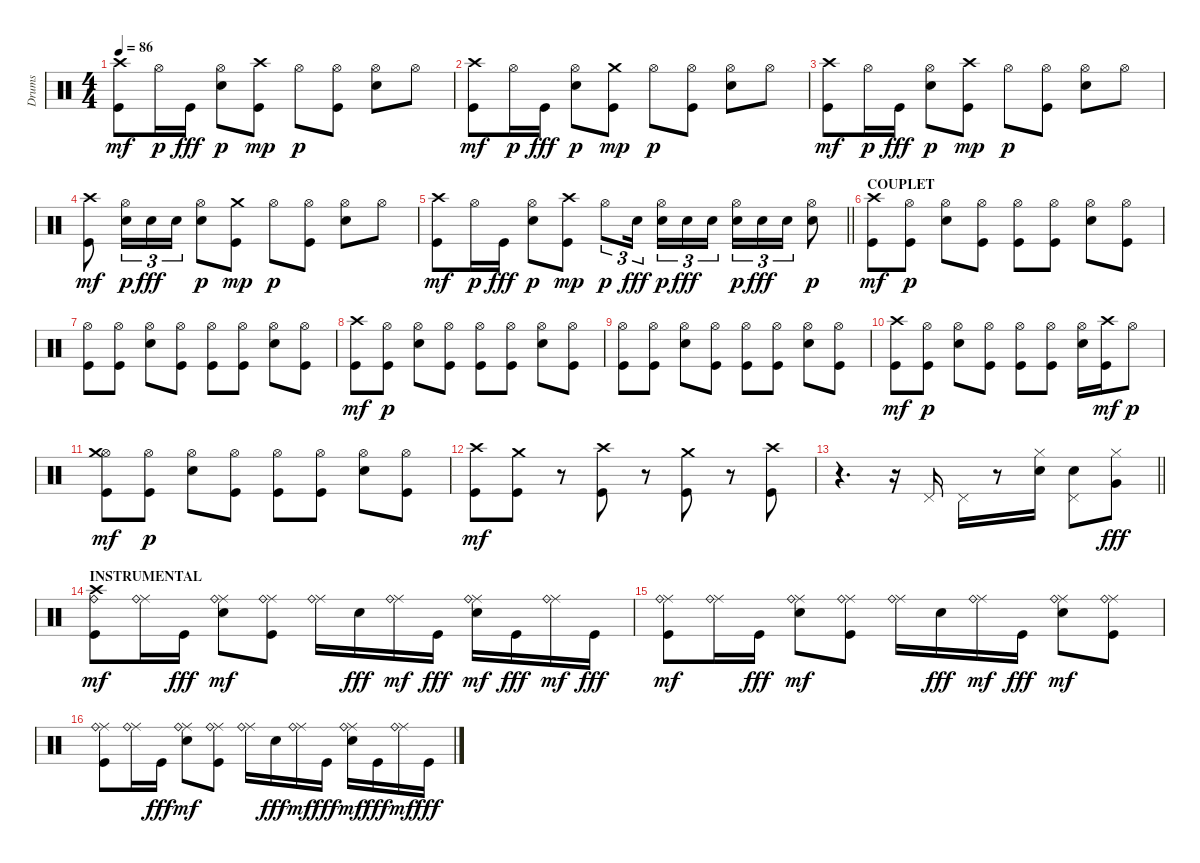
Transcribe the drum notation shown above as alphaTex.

\track ("Drums" "Drums") {instrument percussion}
\staff {score}
\articulation defaults
\ts (4 4)
\tempo 86
\clef neutral
\ks c
("Kick (hit)" "Crash high (hit)").8{dy mf} "Hi-Hat (open)".16{dy p} "Kick (hit)".16{dy fff} ("Electric Snare (hit)" "Hi-Hat (open)").8{dy p} ("Kick (hit)" "Crash high (hit)").8{dy mp} "Hi-Hat (open)".8{dy p} ("Kick (hit)" "Hi-Hat (open)").8 ("Electric Snare (hit)" "Hi-Hat (open)").8 "Hi-Hat (open)".8 |
("Kick (hit)" "Crash high (hit)").8{dy mf} "Hi-Hat (open)".16{dy p} "Kick (hit)".16{dy fff} ("Electric Snare (hit)" "Hi-Hat (open)").8{dy p} ("Kick (hit)" "Crash medium (hit)").8{dy mp} "Hi-Hat (open)".8{dy p} ("Kick (hit)" "Hi-Hat (open)").8 ("Electric Snare (hit)" "Hi-Hat (open)").8 "Hi-Hat (open)".8 |
("Kick (hit)" "Crash high (hit)").8{dy mf} "Hi-Hat (open)".16{dy p} "Kick (hit)".16{dy fff} ("Electric Snare (hit)" "Hi-Hat (open)").8{dy p} ("Kick (hit)" "Crash high (hit)").8{dy mp} "Hi-Hat (open)".8{dy p} ("Kick (hit)" "Hi-Hat (open)").8 ("Electric Snare (hit)" "Hi-Hat (open)").8 "Hi-Hat (open)".8 |
("Kick (hit)" "Crash high (hit)").8{dy mf} ("Electric Snare (hit)" "Hi-Hat (open)").16{tu (3 2) dy p} "Electric Snare (hit)".16{tu (3 2) dy fff} "Electric Snare (hit)".16{tu (3 2)} ("Electric Snare (hit)" "Hi-Hat (open)").8{dy p} ("Kick (hit)" "Crash medium (hit)").8{dy mp} "Hi-Hat (open)".8{dy p} ("Kick (hit)" "Hi-Hat (open)").8 ("Electric Snare (hit)" "Hi-Hat (open)").8 "Hi-Hat (open)".8 |
\barLineRight lightlight
("Kick (hit)" "Crash high (hit)").8{dy mf} "Hi-Hat (open)".16{dy p} "Kick (hit)".16{dy fff} ("Electric Snare (hit)" "Hi-Hat (open)").8{dy p} ("Kick (hit)" "Crash high (hit)").8{dy mp} "Hi-Hat (open)".8{tu (3 2) dy p} "Electric Snare (hit)".16{tu (3 2) dy fff beam splitsecondary} ("Electric Snare (hit)" "Hi-Hat (open)").16{tu (3 2) dy p} "Electric Snare (hit)".16{tu (3 2) dy fff} "Electric Snare (hit)".16{tu (3 2)} ("Electric Snare (hit)" "Hi-Hat (open)").16{tu (3 2) dy p} "Electric Snare (hit)".16{tu (3 2) dy fff} "Electric Snare (hit)".16{tu (3 2)} ("Electric Snare (hit)" "Hi-Hat (open)").8{dy p} |
\section ("" "COUPLET")
("Kick (hit)" "Crash high (hit)").8{dy mf} ("Kick (hit)" "Hi-Hat (open)").8{dy p} ("Electric Snare (hit)" "Hi-Hat (open)").8 ("Kick (hit)" "Hi-Hat (open)").8 ("Kick (hit)" "Hi-Hat (open)").8 ("Kick (hit)" "Hi-Hat (open)").8 ("Electric Snare (hit)" "Hi-Hat (open)").8 ("Kick (hit)" "Hi-Hat (open)").8 |
("Kick (hit)" "Hi-Hat (open)").8 ("Kick (hit)" "Hi-Hat (open)").8 ("Electric Snare (hit)" "Hi-Hat (open)").8 ("Kick (hit)" "Hi-Hat (open)").8 ("Kick (hit)" "Hi-Hat (open)").8 ("Kick (hit)" "Hi-Hat (open)").8 ("Electric Snare (hit)" "Hi-Hat (open)").8 ("Kick (hit)" "Hi-Hat (open)").8 |
("Kick (hit)" "Crash high (hit)").8{dy mf} ("Kick (hit)" "Hi-Hat (open)").8{dy p} ("Electric Snare (hit)" "Hi-Hat (open)").8 ("Kick (hit)" "Hi-Hat (open)").8 ("Kick (hit)" "Hi-Hat (open)").8 ("Kick (hit)" "Hi-Hat (open)").8 ("Electric Snare (hit)" "Hi-Hat (open)").8 ("Kick (hit)" "Hi-Hat (open)").8 |
("Kick (hit)" "Hi-Hat (open)").8 ("Kick (hit)" "Hi-Hat (open)").8 ("Electric Snare (hit)" "Hi-Hat (open)").8 ("Kick (hit)" "Hi-Hat (open)").8 ("Kick (hit)" "Hi-Hat (open)").8 ("Kick (hit)" "Hi-Hat (open)").8 ("Electric Snare (hit)" "Hi-Hat (open)").8 ("Kick (hit)" "Hi-Hat (open)").8 |
("Kick (hit)" "Crash high (hit)").8{dy mf} ("Kick (hit)" "Hi-Hat (open)").8{dy p} ("Electric Snare (hit)" "Hi-Hat (open)").8 ("Kick (hit)" "Hi-Hat (open)").8 ("Kick (hit)" "Hi-Hat (open)").8 ("Kick (hit)" "Hi-Hat (open)").8 ("Electric Snare (hit)" "Hi-Hat (open)").16 ("Kick (hit)" "Crash high (hit)").16{dy mf} "Hi-Hat (open)".8{dy p} |
("Kick (hit)" "Hi-Hat (open)" "Crash medium (hit)").8{dy mf} ("Kick (hit)" "Hi-Hat (open)").8{dy p} ("Electric Snare (hit)" "Hi-Hat (open)").8 ("Kick (hit)" "Hi-Hat (open)").8 ("Kick (hit)" "Hi-Hat (open)").8 ("Kick (hit)" "Hi-Hat (open)").8 ("Electric Snare (hit)" "Hi-Hat (open)").8 ("Kick (hit)" "Hi-Hat (open)").8 |
("Kick (hit)" "Crash high (hit)").8{dy mf} ("Kick (hit)" "Crash medium (hit)").8 r.8 ("Kick (hit)" "Crash high (hit)").8 r.8 ("Kick (hit)" "Crash medium (hit)").8 r.8 ("Kick (hit)" "Crash high (hit)").8 |
\barLineRight lightlight
r.4{d} r.16 "Pedal Hi-Hat (hit)".16 "Pedal Hi-Hat (hit)".16 r.8 ("Electric Snare (hit)" "Hi-Hat (closed)").16 ("Electric Snare (hit)" "Pedal Hi-Hat (hit)").8 ("Hi-Hat (closed)" "Very Low Tom (hit)").8{dy fff} |
\section ("" "INSTRUMENTAL")
("Kick (hit)" "Crash high (hit)" "Ride (bell)").8{dy mf} ("Ride (middle)" "Ride (bell)").16 "Kick (hit)".16{dy fff} ("Electric Snare (hit)" "Ride (middle)" "Ride (bell)").8{dy mf} ("Kick (hit)" "Ride (middle)" "Ride (bell)").8 ("Ride (middle)" "Ride (bell)").16 "Electric Snare (hit)".16{dy fff} ("Ride (middle)" "Ride (bell)").16{dy mf} "Kick (hit)".16{dy fff} ("Electric Snare (hit)" "Ride (middle)" "Ride (bell)").16{dy mf} "Kick (hit)".16{dy fff} ("Ride (middle)" "Ride (bell)").16{dy mf} "Kick (hit)".16{dy fff} |
("Kick (hit)" "Ride (middle)" "Ride (bell)").8{dy mf} ("Ride (middle)" "Ride (bell)").16 "Kick (hit)".16{dy fff} ("Electric Snare (hit)" "Ride (middle)" "Ride (bell)").8{dy mf} ("Kick (hit)" "Ride (middle)" "Ride (bell)").8 ("Ride (middle)" "Ride (bell)").16 "Electric Snare (hit)".16{dy fff} ("Ride (middle)" "Ride (bell)").16{dy mf} "Kick (hit)".16{dy fff} ("Electric Snare (hit)" "Ride (middle)" "Ride (bell)").8{dy mf} ("Kick (hit)" "Ride (middle)" "Ride (bell)").8 |
("Kick (hit)" "Ride (middle)" "Ride (bell)").8 ("Ride (middle)" "Ride (bell)").16 "Kick (hit)".16{dy fff} ("Electric Snare (hit)" "Ride (middle)" "Ride (bell)").8{dy mf} ("Kick (hit)" "Ride (middle)" "Ride (bell)").8 ("Ride (middle)" "Ride (bell)").16 "Electric Snare (hit)".16{dy fff} ("Ride (middle)" "Ride (bell)").16{dy mf} "Kick (hit)".16{dy fff} ("Electric Snare (hit)" "Ride (middle)" "Ride (bell)").16{dy mf} "Kick (hit)".16{dy fff} ("Ride (middle)" "Ride (bell)").16{dy mf} "Kick (hit)".16{dy fff}
